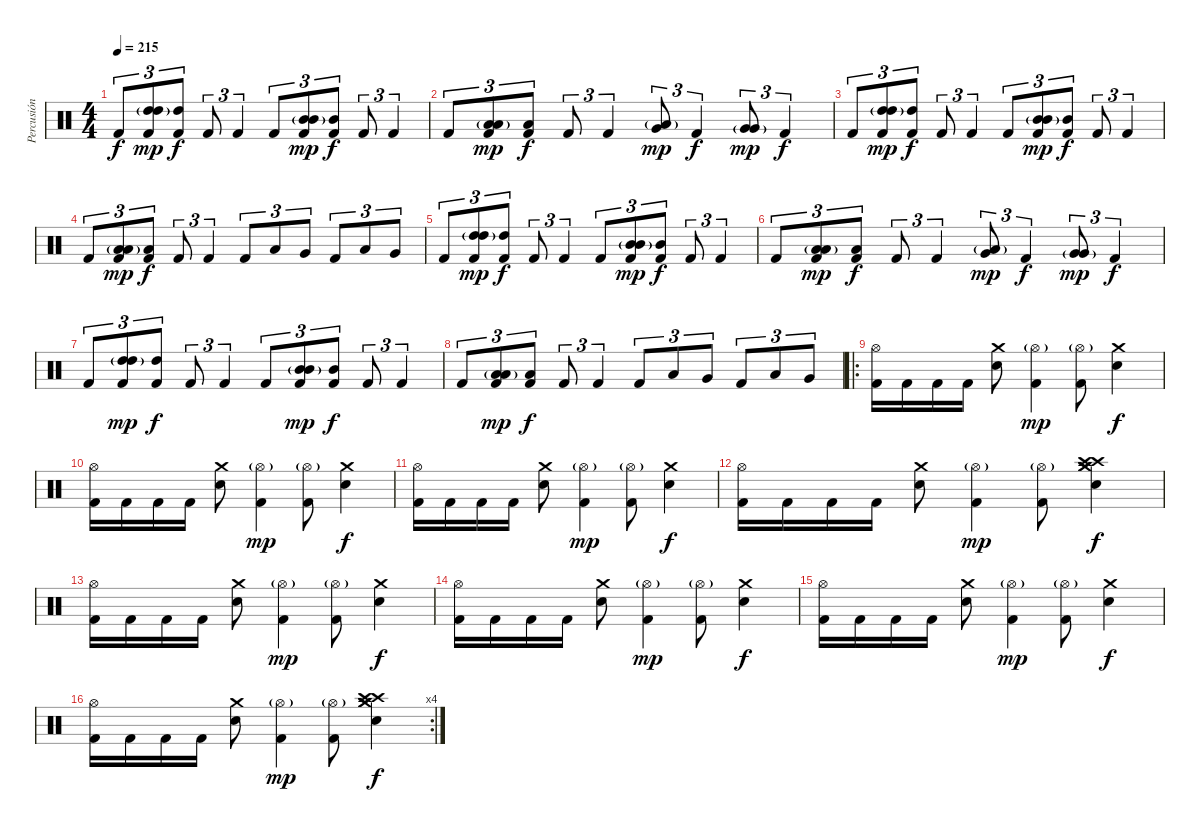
\track ("Percusión" "Percusión") {instrument percussion}
\staff {score}
\articulation defaults
\ts (4 4)
\tempo 215
\clef neutral
\ks c "Kick (hit) 2".8{tu (3 2) dy f}
("High Tom (hit)"{g} "High Tom (hit)" "Kick (hit) 2").8{tu (3 2) dy mp} ("High Tom (hit)" "Kick (hit) 2").8{tu (3 2) dy f} "Kick (hit) 2".8{tu (3 2)} "Kick (hit) 2".4{tu (3 2)} "Kick (hit) 2".8{tu (3 2)} ("Mid Tom (hit)"{g} "Mid Tom (hit)" "Kick (hit) 2").8{tu (3 2) dy mp} ("Mid Tom (hit)" "Kick (hit) 2").8{tu (3 2) dy f} "Kick (hit) 2".8{tu (3 2)} "Kick (hit) 2".4{tu (3 2)} |
"Kick (hit) 2".8{tu (3 2)} ("Low Tom (hit)"{g} "Low Tom (hit)" "Kick (hit) 2").8{tu (3 2) dy mp} ("Low Tom (hit)" "Kick (hit) 2").8{tu (3 2) dy f} "Kick (hit) 2".8{tu (3 2)} "Kick (hit) 2".4{tu (3 2)} ("Very Low Tom (hit)" "Low Tom (hit)"{g}).8{tu (3 2) dy mp} "Kick (hit) 2".4{tu (3 2) dy f} ("Very Low Tom (hit)" "Very Low Tom (hit)"{g}).8{tu (3 2) dy mp} "Kick (hit) 2".4{tu (3 2) dy f} |
"Kick (hit) 2".8{tu (3 2)} ("High Tom (hit)"{g} "High Tom (hit)" "Kick (hit) 2").8{tu (3 2) dy mp} ("High Tom (hit)" "Kick (hit) 2").8{tu (3 2) dy f} "Kick (hit) 2".8{tu (3 2)} "Kick (hit) 2".4{tu (3 2)} "Kick (hit) 2".8{tu (3 2)} ("Mid Tom (hit)"{g} "Mid Tom (hit)" "Kick (hit) 2").8{tu (3 2) dy mp} ("Mid Tom (hit)" "Kick (hit) 2").8{tu (3 2) dy f} "Kick (hit) 2".8{tu (3 2)} "Kick (hit) 2".4{tu (3 2)} |
"Kick (hit) 2".8{tu (3 2)} ("Low Tom (hit)"{g} "Low Tom (hit)" "Kick (hit) 2").8{tu (3 2) dy mp} ("Low Tom (hit)" "Kick (hit) 2").8{tu (3 2) dy f} "Kick (hit) 2".8{tu (3 2)} "Kick (hit) 2".4{tu (3 2)} "Kick (hit) 2".8{tu (3 2)} "Low Tom (hit)".8{tu (3 2)} "Very Low Tom (hit)".8{tu (3 2)} "Kick (hit) 2".8{tu (3 2)} "Low Tom (hit)".8{tu (3 2)} "Very Low Tom (hit)".8{tu (3 2)} |
"Kick (hit) 2".8{tu (3 2)} ("High Tom (hit)"{g} "High Tom (hit)" "Kick (hit) 2").8{tu (3 2) dy mp} ("High Tom (hit)" "Kick (hit) 2").8{tu (3 2) dy f} "Kick (hit) 2".8{tu (3 2)} "Kick (hit) 2".4{tu (3 2)} "Kick (hit) 2".8{tu (3 2)} ("Mid Tom (hit)"{g} "Mid Tom (hit)" "Kick (hit) 2").8{tu (3 2) dy mp} ("Mid Tom (hit)" "Kick (hit) 2").8{tu (3 2) dy f} "Kick (hit) 2".8{tu (3 2)} "Kick (hit) 2".4{tu (3 2)} |
"Kick (hit) 2".8{tu (3 2)} ("Low Tom (hit)"{g} "Low Tom (hit)" "Kick (hit) 2").8{tu (3 2) dy mp} ("Low Tom (hit)" "Kick (hit) 2").8{tu (3 2) dy f} "Kick (hit) 2".8{tu (3 2)} "Kick (hit) 2".4{tu (3 2)} ("Very Low Tom (hit)" "Low Tom (hit)"{g}).8{tu (3 2) dy mp} "Kick (hit) 2".4{tu (3 2) dy f} ("Very Low Tom (hit)" "Very Low Tom (hit)"{g}).8{tu (3 2) dy mp} "Kick (hit) 2".4{tu (3 2) dy f} |
"Kick (hit) 2".8{tu (3 2)} ("High Tom (hit)"{g} "High Tom (hit)" "Kick (hit) 2").8{tu (3 2) dy mp} ("High Tom (hit)" "Kick (hit) 2").8{tu (3 2) dy f} "Kick (hit) 2".8{tu (3 2)} "Kick (hit) 2".4{tu (3 2)} "Kick (hit) 2".8{tu (3 2)} ("Mid Tom (hit)"{g} "Mid Tom (hit)" "Kick (hit) 2").8{tu (3 2) dy mp} ("Mid Tom (hit)" "Kick (hit) 2").8{tu (3 2) dy f} "Kick (hit) 2".8{tu (3 2)} "Kick (hit) 2".4{tu (3 2)} |
"Kick (hit) 2".8{tu (3 2)} ("Low Tom (hit)"{g} "Low Tom (hit)" "Kick (hit) 2").8{tu (3 2) dy mp} ("Low Tom (hit)" "Kick (hit) 2").8{tu (3 2) dy f} "Kick (hit) 2".8{tu (3 2)} "Kick (hit) 2".4{tu (3 2)} "Kick (hit) 2".8{tu (3 2)} "Low Tom (hit)".8{tu (3 2)} "Very Low Tom (hit)".8{tu (3 2)} "Kick (hit) 2".8{tu (3 2)} "Low Tom (hit)".8{tu (3 2)} "Very Low Tom (hit)".8{tu (3 2)} |
\ro
("Hi-Hat (open)" "Kick (hit) 2").16 "Kick (hit) 2".16 "Kick (hit) 2".16 "Kick (hit) 2".16 ("Crash medium (hit)" "Snare (hit) 2").8 ("Hi-Hat (open)"{g} "Kick (hit) 2").4{dy mp} ("Hi-Hat (open)"{g} "Kick (hit) 2").8 ("Crash medium (hit)" "Snare (hit) 2").4{dy f} |
("Hi-Hat (open)" "Kick (hit) 2").16 "Kick (hit) 2".16 "Kick (hit) 2".16 "Kick (hit) 2".16 ("Crash medium (hit)" "Snare (hit) 2").8 ("Hi-Hat (open)"{g} "Kick (hit) 2").4{dy mp} ("Hi-Hat (open)"{g} "Kick (hit) 2").8 ("Crash medium (hit)" "Snare (hit) 2").4{dy f} |
("Hi-Hat (open)" "Kick (hit) 2").16 "Kick (hit) 2".16 "Kick (hit) 2".16 "Kick (hit) 2".16 ("Crash medium (hit)" "Snare (hit) 2").8 ("Hi-Hat (open)"{g} "Kick (hit) 2").4{dy mp} ("Hi-Hat (open)"{g} "Kick (hit) 2").8 ("Crash medium (hit)" "Snare (hit) 2").4{dy f} |
("Hi-Hat (open)" "Kick (hit) 2").16 "Kick (hit) 2".16 "Kick (hit) 2".16 "Kick (hit) 2".16 ("Crash medium (hit)" "Snare (hit) 2").8 ("Hi-Hat (open)"{g} "Kick (hit) 2").4{dy mp} ("Hi-Hat (open)"{g} "Kick (hit) 2").8 ("Crash medium (hit)" "Crash high (hit)" "Crash high (hit)" "Crash medium (hit)" "Snare (hit) 2").4{dy f} |
("Hi-Hat (open)" "Kick (hit) 2").16 "Kick (hit) 2".16 "Kick (hit) 2".16 "Kick (hit) 2".16 ("Crash medium (hit)" "Snare (hit) 2").8 ("Hi-Hat (open)"{g} "Kick (hit) 2").4{dy mp} ("Hi-Hat (open)"{g} "Kick (hit) 2").8 ("Crash medium (hit)" "Snare (hit) 2").4{dy f} |
("Hi-Hat (open)" "Kick (hit) 2").16 "Kick (hit) 2".16 "Kick (hit) 2".16 "Kick (hit) 2".16 ("Crash medium (hit)" "Snare (hit) 2").8 ("Hi-Hat (open)"{g} "Kick (hit) 2").4{dy mp} ("Hi-Hat (open)"{g} "Kick (hit) 2").8 ("Crash medium (hit)" "Snare (hit) 2").4{dy f} |
("Hi-Hat (open)" "Kick (hit) 2").16 "Kick (hit) 2".16 "Kick (hit) 2".16 "Kick (hit) 2".16 ("Crash medium (hit)" "Snare (hit) 2").8 ("Hi-Hat (open)"{g} "Kick (hit) 2").4{dy mp} ("Hi-Hat (open)"{g} "Kick (hit) 2").8 ("Crash medium (hit)" "Snare (hit) 2").4{dy f} |
\rc 4
("Hi-Hat (open)" "Kick (hit) 2").16 "Kick (hit) 2".16 "Kick (hit) 2".16 "Kick (hit) 2".16 ("Crash medium (hit)" "Snare (hit) 2").8 ("Hi-Hat (open)"{g} "Kick (hit) 2").4{dy mp} ("Hi-Hat (open)"{g} "Kick (hit) 2").8 ("Crash medium (hit)" "Crash high (hit)" "Crash high (hit)" "Crash medium (hit)" "Snare (hit) 2").4{dy f}
